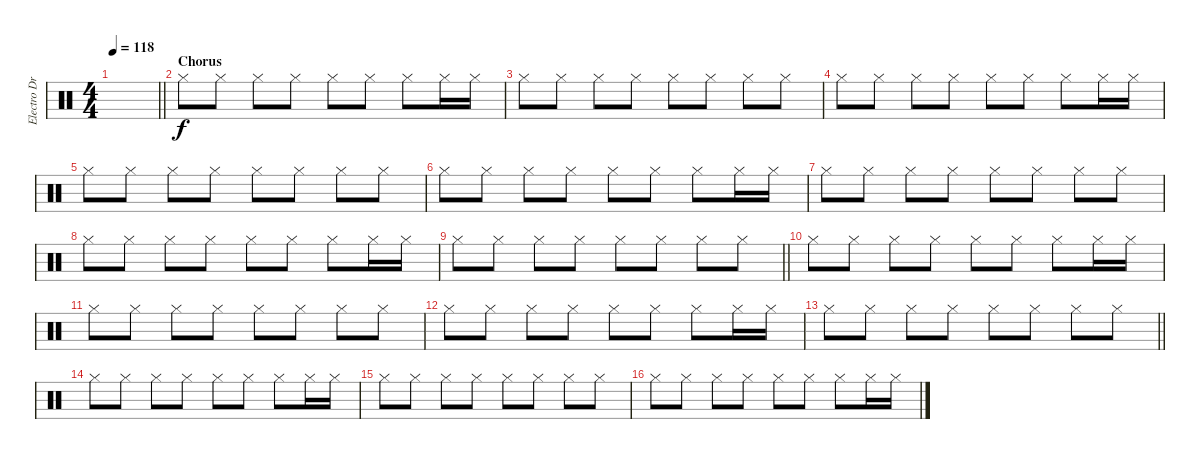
\track ("Electro Drums" "Electro Dr") {instrument percussion}
\staff {score}
\articulation defaults
\ts (4 4)
\tempo 118
\clef neutral
\barLineRight lightlight
\ks c
|
\section ("" "Chorus")
"Hi-Hat (closed)".8{volume 4} "Hi-Hat (closed)".8 "Hi-Hat (closed)".8 "Hi-Hat (closed)".8 "Hi-Hat (closed)".8 "Hi-Hat (closed)".8 "Hi-Hat (closed)".8 "Hi-Hat (closed)".16 "Hi-Hat (closed)".16 |
"Hi-Hat (closed)".8 "Hi-Hat (closed)".8 "Hi-Hat (closed)".8 "Hi-Hat (closed)".8 "Hi-Hat (closed)".8 "Hi-Hat (closed)".8 "Hi-Hat (closed)".8 "Hi-Hat (closed)".8 |
"Hi-Hat (closed)".8 "Hi-Hat (closed)".8 "Hi-Hat (closed)".8 "Hi-Hat (closed)".8 "Hi-Hat (closed)".8 "Hi-Hat (closed)".8 "Hi-Hat (closed)".8 "Hi-Hat (closed)".16 "Hi-Hat (closed)".16 |
"Hi-Hat (closed)".8 "Hi-Hat (closed)".8 "Hi-Hat (closed)".8 "Hi-Hat (closed)".8 "Hi-Hat (closed)".8 "Hi-Hat (closed)".8 "Hi-Hat (closed)".8 "Hi-Hat (closed)".8 |
"Hi-Hat (closed)".8 "Hi-Hat (closed)".8 "Hi-Hat (closed)".8 "Hi-Hat (closed)".8 "Hi-Hat (closed)".8 "Hi-Hat (closed)".8 "Hi-Hat (closed)".8 "Hi-Hat (closed)".16 "Hi-Hat (closed)".16 |
"Hi-Hat (closed)".8 "Hi-Hat (closed)".8 "Hi-Hat (closed)".8 "Hi-Hat (closed)".8 "Hi-Hat (closed)".8 "Hi-Hat (closed)".8 "Hi-Hat (closed)".8 "Hi-Hat (closed)".8 |
"Hi-Hat (closed)".8 "Hi-Hat (closed)".8 "Hi-Hat (closed)".8 "Hi-Hat (closed)".8 "Hi-Hat (closed)".8 "Hi-Hat (closed)".8 "Hi-Hat (closed)".8 "Hi-Hat (closed)".16 "Hi-Hat (closed)".16 |
\barLineRight lightlight "Hi-Hat (closed)".8 "Hi-Hat (closed)".8 "Hi-Hat (closed)".8 "Hi-Hat (closed)".8 "Hi-Hat (closed)".8 "Hi-Hat (closed)".8 "Hi-Hat (closed)".8 "Hi-Hat (closed)".8
|
"Hi-Hat (closed)".8 "Hi-Hat (closed)".8 "Hi-Hat (closed)".8 "Hi-Hat (closed)".8 "Hi-Hat (closed)".8 "Hi-Hat (closed)".8 "Hi-Hat (closed)".8 "Hi-Hat (closed)".16 "Hi-Hat (closed)".16 |
"Hi-Hat (closed)".8 "Hi-Hat (closed)".8 "Hi-Hat (closed)".8 "Hi-Hat (closed)".8 "Hi-Hat (closed)".8 "Hi-Hat (closed)".8 "Hi-Hat (closed)".8 "Hi-Hat (closed)".8 |
"Hi-Hat (closed)".8 "Hi-Hat (closed)".8 "Hi-Hat (closed)".8 "Hi-Hat (closed)".8 "Hi-Hat (closed)".8 "Hi-Hat (closed)".8 "Hi-Hat (closed)".8 "Hi-Hat (closed)".16 "Hi-Hat (closed)".16 |
\barLineRight lightlight "Hi-Hat (closed)".8 "Hi-Hat (closed)".8 "Hi-Hat (closed)".8 "Hi-Hat (closed)".8 "Hi-Hat (closed)".8 "Hi-Hat (closed)".8 "Hi-Hat (closed)".8 "Hi-Hat (closed)".8
|
"Hi-Hat (closed)".8 "Hi-Hat (closed)".8 "Hi-Hat (closed)".8 "Hi-Hat (closed)".8 "Hi-Hat (closed)".8 "Hi-Hat (closed)".8 "Hi-Hat (closed)".8 "Hi-Hat (closed)".16 "Hi-Hat (closed)".16 |
"Hi-Hat (closed)".8 "Hi-Hat (closed)".8 "Hi-Hat (closed)".8 "Hi-Hat (closed)".8 "Hi-Hat (closed)".8 "Hi-Hat (closed)".8 "Hi-Hat (closed)".8 "Hi-Hat (closed)".8 |
"Hi-Hat (closed)".8 "Hi-Hat (closed)".8 "Hi-Hat (closed)".8 "Hi-Hat (closed)".8 "Hi-Hat (closed)".8 "Hi-Hat (closed)".8 "Hi-Hat (closed)".8 "Hi-Hat (closed)".16 "Hi-Hat (closed)".16
